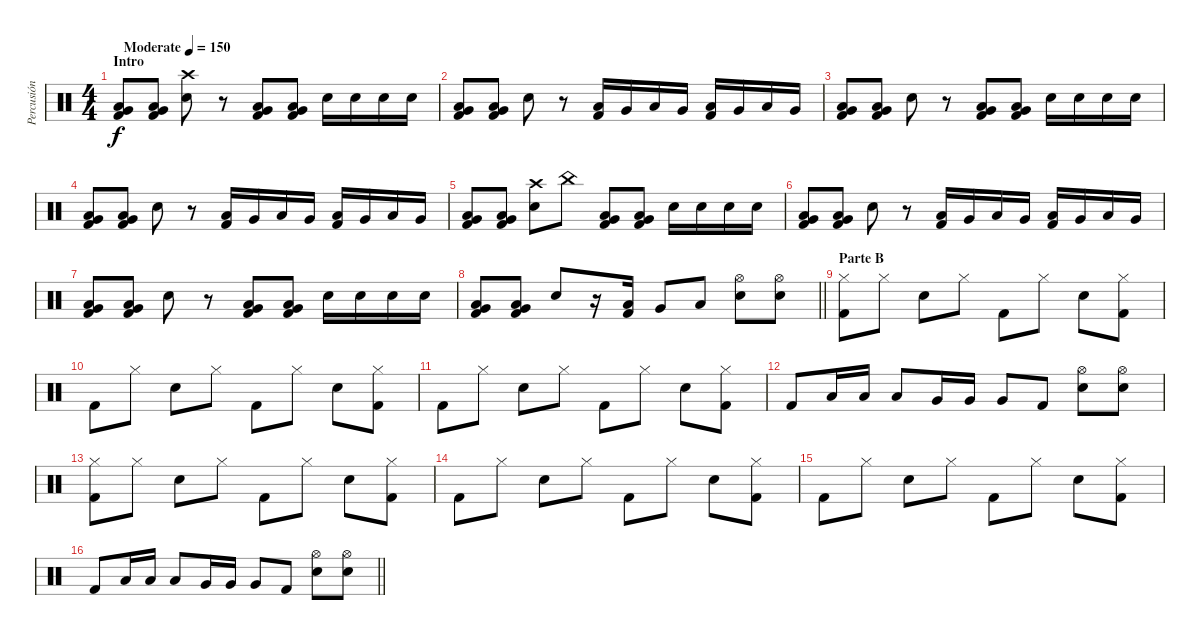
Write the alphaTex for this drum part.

\track ("Percusión" "Percusión") {instrument percussion}
\staff {score}
\articulation defaults
\ts (4 4)
\section ("" "Intro")
\tempo (150 "Moderate")
\clef neutral
\ks c
("Kick (hit) 2" "Low Floor Tom (hit)" "Very Low Tom (hit)").8{dy f} ("Kick (hit) 2" "Low Floor Tom (hit)" "Very Low Tom (hit)").8 ("Crash high (hit)" "Electric Snare (hit)").8 r.8 ("Kick (hit) 2" "Low Floor Tom (hit)" "Very Low Tom (hit)").8 ("Kick (hit) 2" "Low Floor Tom (hit)" "Very Low Tom (hit)").8 "Electric Snare (hit)".16 "Electric Snare (hit)".16 "Electric Snare (hit)".16 "Electric Snare (hit)".16 |
("Kick (hit) 2" "Low Floor Tom (hit)" "Very Low Tom (hit)").8 ("Kick (hit) 2" "Low Floor Tom (hit)" "Very Low Tom (hit)").8 "Electric Snare (hit)".8 r.8 ("Low Floor Tom (hit)" "Kick (hit) 2").16 "Very Low Tom (hit)".16 "Low Floor Tom (hit)".16 "Very Low Tom (hit)".16 ("Low Floor Tom (hit)" "Kick (hit) 2").16 "Very Low Tom (hit)".16 "Low Floor Tom (hit)".16 "Very Low Tom (hit)".16 |
("Kick (hit) 2" "Low Floor Tom (hit)" "Very Low Tom (hit)").8 ("Kick (hit) 2" "Low Floor Tom (hit)" "Very Low Tom (hit)").8 "Electric Snare (hit)".8 r.8 ("Kick (hit) 2" "Low Floor Tom (hit)" "Very Low Tom (hit)").8 ("Kick (hit) 2" "Low Floor Tom (hit)" "Very Low Tom (hit)").8 "Electric Snare (hit)".16 "Electric Snare (hit)".16 "Electric Snare (hit)".16 "Electric Snare (hit)".16 |
("Kick (hit) 2" "Low Floor Tom (hit)" "Very Low Tom (hit)").8 ("Kick (hit) 2" "Low Floor Tom (hit)" "Very Low Tom (hit)").8 "Electric Snare (hit)".8 r.8 ("Low Floor Tom (hit)" "Kick (hit) 2").16 "Very Low Tom (hit)".16 "Low Floor Tom (hit)".16 "Very Low Tom (hit)".16 ("Low Floor Tom (hit)" "Kick (hit) 2").16 "Very Low Tom (hit)".16 "Low Floor Tom (hit)".16 "Very Low Tom (hit)".16 |
("Kick (hit) 2" "Low Floor Tom (hit)" "Very Low Tom (hit)").8 ("Kick (hit) 2" "Low Floor Tom (hit)" "Very Low Tom (hit)").8 ("Crash high (hit)" "Electric Snare (hit)").8 "China (hit)".8 ("Kick (hit) 2" "Low Floor Tom (hit)" "Very Low Tom (hit)").8 ("Kick (hit) 2" "Low Floor Tom (hit)" "Very Low Tom (hit)").8 "Electric Snare (hit)".16 "Electric Snare (hit)".16 "Electric Snare (hit)".16 "Electric Snare (hit)".16 |
("Kick (hit) 2" "Low Floor Tom (hit)" "Very Low Tom (hit)").8 ("Kick (hit) 2" "Low Floor Tom (hit)" "Very Low Tom (hit)").8 "Electric Snare (hit)".8 r.8 ("Low Floor Tom (hit)" "Kick (hit) 2").16 "Very Low Tom (hit)".16 "Low Floor Tom (hit)".16 "Very Low Tom (hit)".16 ("Low Floor Tom (hit)" "Kick (hit) 2").16 "Very Low Tom (hit)".16 "Low Floor Tom (hit)".16 "Very Low Tom (hit)".16 |
("Kick (hit) 2" "Low Floor Tom (hit)" "Very Low Tom (hit)").8 ("Kick (hit) 2" "Low Floor Tom (hit)" "Very Low Tom (hit)").8 "Electric Snare (hit)".8 r.8 ("Kick (hit) 2" "Low Floor Tom (hit)" "Very Low Tom (hit)").8 ("Kick (hit) 2" "Low Floor Tom (hit)" "Very Low Tom (hit)").8 "Electric Snare (hit)".16 "Electric Snare (hit)".16 "Electric Snare (hit)".16 "Electric Snare (hit)".16 |
\barLineRight lightlight
("Kick (hit) 2" "Low Floor Tom (hit)" "Very Low Tom (hit)").8 ("Kick (hit) 2" "Low Floor Tom (hit)" "Very Low Tom (hit)").8 "Electric Snare (hit)".8 r.16 ("Low Floor Tom (hit)" "Kick (hit) 2").16 "Very Low Tom (hit)".8 "Low Floor Tom (hit)".8 ("Hi-Hat (open)" "Electric Snare (hit)").8 ("Hi-Hat (open)" "Electric Snare (hit)").8 |
\section ("" "Parte B")
("Hi-Hat (closed)" "Kick (hit) 2").8 "Hi-Hat (closed)".8 "Electric Snare (hit)".8 "Hi-Hat (closed)".8 "Kick (hit) 2".8 "Hi-Hat (closed)".8 "Electric Snare (hit)".8 ("Hi-Hat (closed)" "Kick (hit) 2").8 |
"Kick (hit) 2".8 "Hi-Hat (closed)".8 "Electric Snare (hit)".8 "Hi-Hat (closed)".8 "Kick (hit) 2".8 "Hi-Hat (closed)".8 "Electric Snare (hit)".8 ("Hi-Hat (closed)" "Kick (hit) 2").8 |
"Kick (hit) 2".8 "Hi-Hat (closed)".8 "Electric Snare (hit)".8 "Hi-Hat (closed)".8 "Kick (hit) 2".8 "Hi-Hat (closed)".8 "Electric Snare (hit)".8 ("Hi-Hat (closed)" "Kick (hit) 2").8 |
"Kick (hit) 2".8 "Low Tom (hit)".16 "Low Tom (hit)".16 "Low Tom (hit)".8 "Very Low Tom (hit)".16 "Very Low Tom (hit)".16 "Very Low Tom (hit)".8 "Kick (hit) 2".8 ("Hi-Hat (open)" "Electric Snare (hit)").8 ("Hi-Hat (open)" "Electric Snare (hit)").8 |
("Hi-Hat (closed)" "Kick (hit) 2").8 "Hi-Hat (closed)".8 "Electric Snare (hit)".8 "Hi-Hat (closed)".8 "Kick (hit) 2".8 "Hi-Hat (closed)".8 "Electric Snare (hit)".8 ("Hi-Hat (closed)" "Kick (hit) 2").8 |
"Kick (hit) 2".8 "Hi-Hat (closed)".8 "Electric Snare (hit)".8 "Hi-Hat (closed)".8 "Kick (hit) 2".8 "Hi-Hat (closed)".8 "Electric Snare (hit)".8 ("Hi-Hat (closed)" "Kick (hit) 2").8 |
"Kick (hit) 2".8 "Hi-Hat (closed)".8 "Electric Snare (hit)".8 "Hi-Hat (closed)".8 "Kick (hit) 2".8 "Hi-Hat (closed)".8 "Electric Snare (hit)".8 ("Hi-Hat (closed)" "Kick (hit) 2").8 |
\barLineRight lightlight "Kick (hit) 2".8 "Low Tom (hit)".16 "Low Tom (hit)".16 "Low Tom (hit)".8 "Very Low Tom (hit)".16 "Very Low Tom (hit)".16 "Very Low Tom (hit)".8 "Kick (hit) 2".8
("Hi-Hat (open)" "Electric Snare (hit)").8 ("Hi-Hat (open)" "Electric Snare (hit)").8
